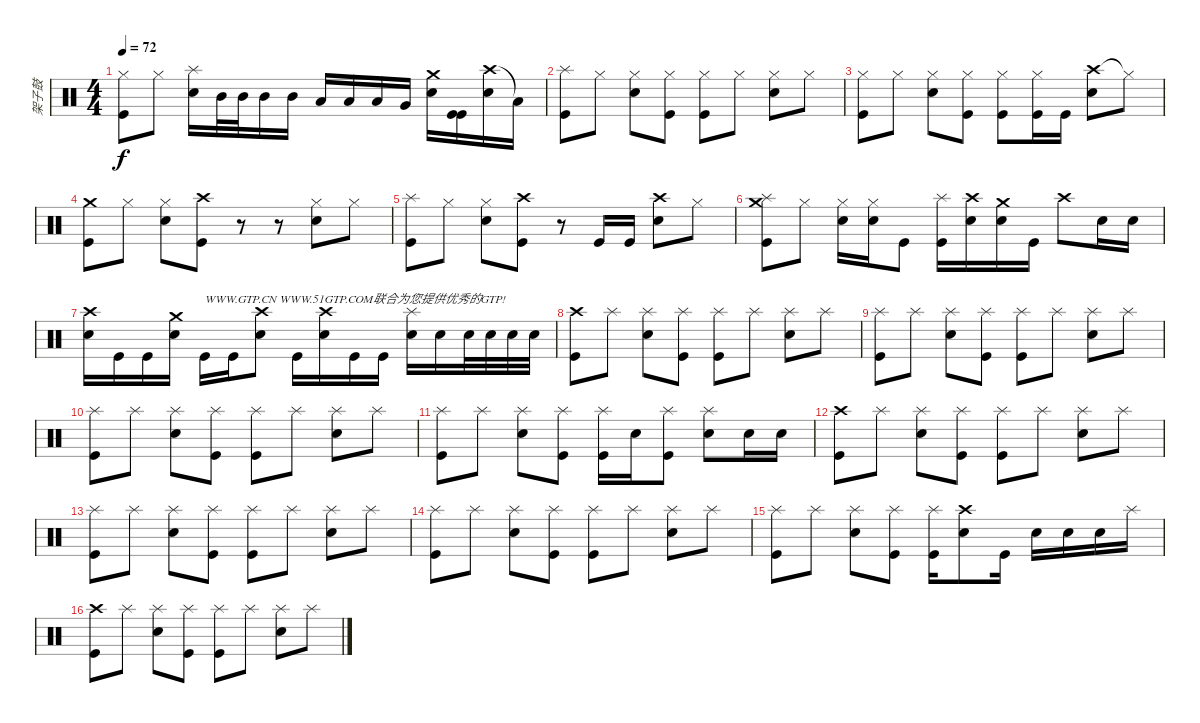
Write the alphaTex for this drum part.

\track ("架子鼓" "架子鼓") {instrument percussion}
\staff {score}
\articulation defaults
\ts (4 4)
\tempo 72
\clef neutral
\ks c
("Hi-Hat (closed)" "Kick (hit)").8{dy f} "Hi-Hat (closed)".8 ("Splash (hit)" "Electric Snare (hit)").16 "Mid Tom (hit)".32 "Mid Tom (hit)".32 "Mid Tom (hit)".16 "Mid Tom (hit)".16 "Low Tom (hit)".16 "Low Tom (hit)".16 "Low Tom (hit)".16 "Very Low Tom (hit)".16 ("Crash medium (hit)" "Electric Snare (hit)").16 ("Kick (hit)" "Kick (hit)").16 ("Crash high (hit)" "Electric Snare (hit)").16 "Low Floor Tom (hit)"{t}.16 |
("Splash (hit)" "Kick (hit)").8 "Hi-Hat (closed)".8 ("Hi-Hat (closed)" "Electric Snare (hit)").8 ("Hi-Hat (closed)" "Kick (hit)").8 ("Hi-Hat (closed)" "Kick (hit)").8 "Hi-Hat (closed)".8 ("Hi-Hat (closed)" "Electric Snare (hit)").8 "Hi-Hat (closed)".8 |
("Hi-Hat (closed)" "Kick (hit)").8 "Hi-Hat (closed)".8 ("Hi-Hat (closed)" "Electric Snare (hit)").8 ("Hi-Hat (closed)" "Kick (hit)").8 ("Hi-Hat (closed)" "Kick (hit)").8 ("Hi-Hat (closed)" "Kick (hit)").16 "Kick (hit)".16 ("Crash high (hit)" "Electric Snare (hit)").8 "Hi-Hat (closed)"{t}.8 |
("Crash medium (hit)" "Kick (hit)").8 "Hi-Hat (closed)".8 ("Hi-Hat (closed)" "Electric Snare (hit)").8 ("Crash high (hit)" "Kick (hit)").8 r.8 r.8 ("Hi-Hat (closed)" "Electric Snare (hit)").8 "Hi-Hat (closed)".8 |
("Splash (hit)" "Kick (hit)").8 "Hi-Hat (closed)".8 ("Hi-Hat (closed)" "Electric Snare (hit)").8 ("Crash high (hit)" "Kick (hit)").8 r.8 "Kick (hit)".16 "Kick (hit)".16 ("Crash high (hit)" "Electric Snare (hit)").8 "Hi-Hat (closed)".8 |
("Splash (hit)" "Kick (hit)" "Crash medium (hit)").8 "Hi-Hat (closed)".8 ("Hi-Hat (closed)" "Electric Snare (hit)").16 ("Hi-Hat (closed)" "Electric Snare (hit)").16 "Kick (hit)".8 ("Splash (hit)" "Kick (hit)").16 ("Crash high (hit)" "Electric Snare (hit)").16 ("Crash medium (hit)" "Electric Snare (hit)").16 "Kick (hit)".16 "Crash high (hit)".8 "Electric Snare (hit)".16 "Electric Snare (hit)".16 |
("Crash high (hit)" "Electric Snare (hit)").16 "Kick (hit)".16 "Kick (hit)".16 ("Crash medium (hit)" "Electric Snare (hit)").16 "Kick (hit)".16{txt "WWW.GTP.CN WWW.51GTP.COM联合为您提供优秀的GTP!"} "Kick (hit)".16 ("Crash high (hit)" "Electric Snare (hit)").8 "Kick (hit)".16 ("Crash high (hit)" "Electric Snare (hit)").16 "Kick (hit)".16 "Kick (hit)".16 ("Splash (hit)" "Electric Snare (hit)").16 "Electric Snare (hit)".16 "Electric Snare (hit)".32 "Electric Snare (hit)".32 "Electric Snare (hit)".32 "Electric Snare (hit)".32 |
("Crash high (hit)" "Kick (hit)").8 "Splash (hit)".8 ("Splash (hit)" "Electric Snare (hit)").8 ("Splash (hit)" "Kick (hit)").8 ("Splash (hit)" "Kick (hit)").8 "Splash (hit)".8 ("Splash (hit)" "Electric Snare (hit)").8 "Splash (hit)".8 |
("Splash (hit)" "Kick (hit)").8 "Splash (hit)".8 ("Splash (hit)" "Electric Snare (hit)").8 ("Splash (hit)" "Kick (hit)").8 ("Splash (hit)" "Kick (hit)").8 "Splash (hit)".8 ("Splash (hit)" "Electric Snare (hit)").8 "Splash (hit)".8 |
("Splash (hit)" "Kick (hit)").8 "Splash (hit)".8 ("Splash (hit)" "Electric Snare (hit)").8 ("Splash (hit)" "Kick (hit)").8 ("Splash (hit)" "Kick (hit)").8 "Splash (hit)".8 ("Splash (hit)" "Electric Snare (hit)").8 "Splash (hit)".8 |
("Splash (hit)" "Kick (hit)").8 "Splash (hit)".8 ("Splash (hit)" "Electric Snare (hit)").8 ("Splash (hit)" "Kick (hit)").8 ("Splash (hit)" "Kick (hit)").16 "Electric Snare (hit)".16 ("Splash (hit)" "Kick (hit)").8 ("Splash (hit)" "Electric Snare (hit)").8 "Electric Snare (hit)".16 "Electric Snare (hit)".16 |
("Crash high (hit)" "Kick (hit)").8 "Splash (hit)".8 ("Splash (hit)" "Electric Snare (hit)").8 ("Splash (hit)" "Kick (hit)").8 ("Splash (hit)" "Kick (hit)").8 "Splash (hit)".8 ("Splash (hit)" "Electric Snare (hit)").8 "Splash (hit)".8 |
("Splash (hit)" "Kick (hit)").8 "Splash (hit)".8 ("Splash (hit)" "Electric Snare (hit)").8 ("Splash (hit)" "Kick (hit)").8 ("Splash (hit)" "Kick (hit)").8 "Splash (hit)".8 ("Splash (hit)" "Electric Snare (hit)").8 "Splash (hit)".8 |
("Splash (hit)" "Kick (hit)").8 "Splash (hit)".8 ("Splash (hit)" "Electric Snare (hit)").8 ("Splash (hit)" "Kick (hit)").8 ("Splash (hit)" "Kick (hit)").8 "Splash (hit)".8 ("Splash (hit)" "Electric Snare (hit)").8 "Splash (hit)".8 |
("Splash (hit)" "Kick (hit)").8 "Splash (hit)".8 ("Splash (hit)" "Electric Snare (hit)").8 ("Splash (hit)" "Kick (hit)").8 ("Splash (hit)" "Kick (hit)").16 ("Crash high (hit)" "Electric Snare (hit)").8 "Kick (hit)".16 "Electric Snare (hit)".16 "Electric Snare (hit)".16 "Electric Snare (hit)".16 "Splash (hit)".16 |
("Crash high (hit)" "Kick (hit)").8 "Splash (hit)".8 ("Splash (hit)" "Electric Snare (hit)").8 ("Splash (hit)" "Kick (hit)").8 ("Splash (hit)" "Kick (hit)").8 "Splash (hit)".8 ("Splash (hit)" "Electric Snare (hit)").8 "Splash (hit)".8
